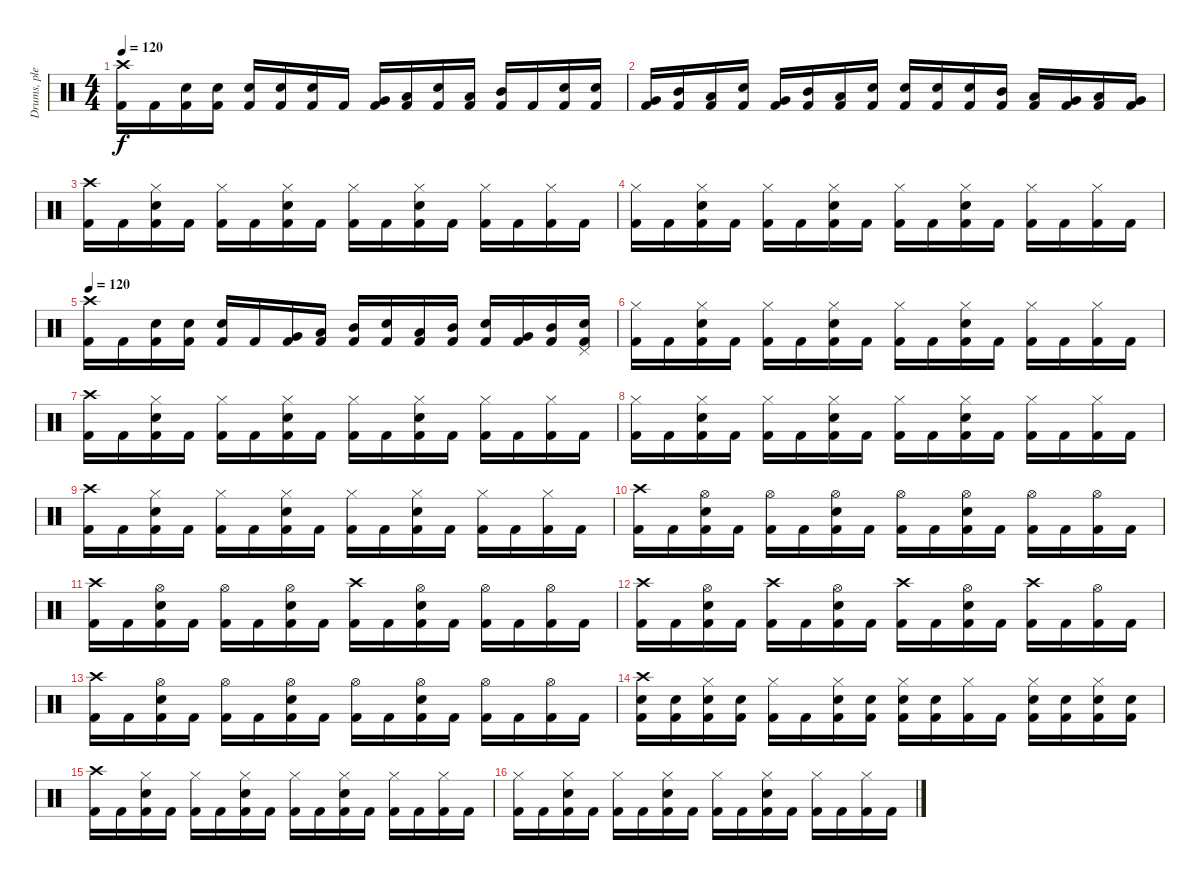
\track ("Drums, please" "Drums, ple") {instrument percussion}
\staff {score}
\articulation defaults
\ts (4 4)
\tempo 120
\clef neutral
\ks c
("Kick (hit) 2" "Crash high (hit)").16{dy f} "Kick (hit) 2".16 ("Kick (hit) 2" "Electric Snare (hit)").16 ("Kick (hit) 2" "Electric Snare (hit)").16 ("Kick (hit) 2" "Electric Snare (hit)").16 ("Kick (hit) 2" "Electric Snare (hit)").16 ("Kick (hit) 2" "Electric Snare (hit)").16 "Kick (hit) 2".16 ("Kick (hit) 2" "Very Low Tom (hit)").16 ("Kick (hit) 2" "Low Tom (hit)").16 ("Kick (hit) 2" "Electric Snare (hit)").16 ("Kick (hit) 2" "Low Tom (hit)").16 ("Kick (hit) 2" "Mid Tom (hit)").16 "Kick (hit) 2".16 ("Kick (hit) 2" "Electric Snare (hit)").16 ("Kick (hit) 2" "Electric Snare (hit)").16 |
("Kick (hit) 2" "Very Low Tom (hit)").16 ("Kick (hit) 2" "Mid Tom (hit)").16 ("Kick (hit) 2" "Low Tom (hit)").16 ("Kick (hit) 2" "Electric Snare (hit)").16 ("Kick (hit) 2" "Very Low Tom (hit)").16 ("Kick (hit) 2" "Mid Tom (hit)").16 ("Kick (hit) 2" "Low Tom (hit)").16 ("Kick (hit) 2" "Electric Snare (hit)").16 ("Kick (hit) 2" "Electric Snare (hit)").16 ("Kick (hit) 2" "Electric Snare (hit)").16 ("Kick (hit) 2" "Electric Snare (hit)").16 ("Kick (hit) 2" "Mid Tom (hit)").16 ("Kick (hit) 2" "Low Tom (hit)").16 ("Kick (hit) 2" "Very Low Tom (hit)").16 ("Kick (hit) 2" "Low Floor Tom (hit)").16 ("Kick (hit) 2" "Very Low Tom (hit)").16 |
("Kick (hit) 2" "Crash high (hit)").16 "Kick (hit) 2".16 ("Kick (hit) 2" "Electric Snare (hit)" "Hi-Hat (closed)").16 "Kick (hit) 2".16 ("Kick (hit) 2" "Hi-Hat (closed)").16 "Kick (hit) 2".16 ("Kick (hit) 2" "Electric Snare (hit)" "Hi-Hat (closed)").16 "Kick (hit) 2".16 ("Kick (hit) 2" "Hi-Hat (closed)").16 "Kick (hit) 2".16 ("Kick (hit) 2" "Electric Snare (hit)" "Hi-Hat (closed)").16 "Kick (hit) 2".16 ("Kick (hit) 2" "Hi-Hat (closed)").16 "Kick (hit) 2".16 ("Kick (hit) 2" "Hi-Hat (closed)").16 "Kick (hit) 2".16 |
("Kick (hit) 2" "Hi-Hat (closed)").16 "Kick (hit) 2".16 ("Kick (hit) 2" "Electric Snare (hit)" "Hi-Hat (closed)").16 "Kick (hit) 2".16 ("Kick (hit) 2" "Hi-Hat (closed)").16 "Kick (hit) 2".16 ("Kick (hit) 2" "Electric Snare (hit)" "Hi-Hat (closed)").16 "Kick (hit) 2".16 ("Kick (hit) 2" "Hi-Hat (closed)").16 "Kick (hit) 2".16 ("Kick (hit) 2" "Electric Snare (hit)" "Hi-Hat (closed)").16 "Kick (hit) 2".16 ("Kick (hit) 2" "Hi-Hat (closed)").16 "Kick (hit) 2".16 ("Kick (hit) 2" "Hi-Hat (closed)").16 "Kick (hit) 2".16 |
\tempo 120
("Kick (hit) 2" "Crash high (hit)").16 "Kick (hit) 2".16 ("Kick (hit) 2" "Electric Snare (hit)").16 ("Kick (hit) 2" "Electric Snare (hit)").16 ("Kick (hit) 2" "Electric Snare (hit)").16 "Kick (hit) 2".16 ("Kick (hit) 2" "Very Low Tom (hit)").16 ("Kick (hit) 2" "Low Tom (hit)").16 ("Kick (hit) 2" "Mid Tom (hit)").16 ("Kick (hit) 2" "Electric Snare (hit)").16 ("Kick (hit) 2" "Low Tom (hit)").16 ("Kick (hit) 2" "Mid Tom (hit)").16 ("Kick (hit) 2" "Electric Snare (hit)").16 ("Kick (hit) 2" "Very Low Tom (hit)").16 ("Kick (hit) 2" "Mid Tom (hit)").16 ("Kick (hit) 2" "Electric Snare (hit)" "Pedal Hi-Hat (hit)").16 |
("Kick (hit) 2" "Hi-Hat (closed)").16 "Kick (hit) 2".16 ("Kick (hit) 2" "Electric Snare (hit)" "Hi-Hat (closed)").16 "Kick (hit) 2".16 ("Kick (hit) 2" "Hi-Hat (closed)").16 "Kick (hit) 2".16 ("Kick (hit) 2" "Electric Snare (hit)" "Hi-Hat (closed)").16 "Kick (hit) 2".16 ("Kick (hit) 2" "Hi-Hat (closed)").16 "Kick (hit) 2".16 ("Kick (hit) 2" "Electric Snare (hit)" "Hi-Hat (closed)").16 "Kick (hit) 2".16 ("Kick (hit) 2" "Hi-Hat (closed)").16 "Kick (hit) 2".16 ("Kick (hit) 2" "Hi-Hat (closed)").16 "Kick (hit) 2".16 |
("Kick (hit) 2" "Crash high (hit)").16 "Kick (hit) 2".16 ("Kick (hit) 2" "Electric Snare (hit)" "Hi-Hat (closed)").16 "Kick (hit) 2".16 ("Kick (hit) 2" "Hi-Hat (closed)").16 "Kick (hit) 2".16 ("Kick (hit) 2" "Electric Snare (hit)" "Hi-Hat (closed)").16 "Kick (hit) 2".16 ("Kick (hit) 2" "Hi-Hat (closed)").16 "Kick (hit) 2".16 ("Kick (hit) 2" "Electric Snare (hit)" "Hi-Hat (closed)").16 "Kick (hit) 2".16 ("Kick (hit) 2" "Hi-Hat (closed)").16 "Kick (hit) 2".16 ("Kick (hit) 2" "Hi-Hat (closed)").16 "Kick (hit) 2".16 |
("Kick (hit) 2" "Hi-Hat (closed)").16 "Kick (hit) 2".16 ("Kick (hit) 2" "Electric Snare (hit)" "Hi-Hat (closed)").16 "Kick (hit) 2".16 ("Kick (hit) 2" "Hi-Hat (closed)").16 "Kick (hit) 2".16 ("Kick (hit) 2" "Electric Snare (hit)" "Hi-Hat (closed)").16 "Kick (hit) 2".16 ("Kick (hit) 2" "Hi-Hat (closed)").16 "Kick (hit) 2".16 ("Kick (hit) 2" "Electric Snare (hit)" "Hi-Hat (closed)").16 "Kick (hit) 2".16 ("Kick (hit) 2" "Hi-Hat (closed)").16 "Kick (hit) 2".16 ("Kick (hit) 2" "Hi-Hat (closed)").16 "Kick (hit) 2".16 |
("Kick (hit) 2" "Crash high (hit)").16 "Kick (hit) 2".16 ("Kick (hit) 2" "Electric Snare (hit)" "Hi-Hat (closed)").16 "Kick (hit) 2".16 ("Kick (hit) 2" "Hi-Hat (closed)").16 "Kick (hit) 2".16 ("Kick (hit) 2" "Electric Snare (hit)" "Hi-Hat (closed)").16 "Kick (hit) 2".16 ("Kick (hit) 2" "Hi-Hat (closed)").16 "Kick (hit) 2".16 ("Kick (hit) 2" "Electric Snare (hit)" "Hi-Hat (closed)").16 "Kick (hit) 2".16 ("Kick (hit) 2" "Hi-Hat (closed)").16 "Kick (hit) 2".16 ("Kick (hit) 2" "Hi-Hat (closed)").16 "Kick (hit) 2".16 |
("Kick (hit) 2" "Crash high (hit)").16 "Kick (hit) 2".16 ("Kick (hit) 2" "Electric Snare (hit)" "Hi-Hat (open)").16 "Kick (hit) 2".16 ("Kick (hit) 2" "Hi-Hat (open)").16 "Kick (hit) 2".16 ("Kick (hit) 2" "Electric Snare (hit)" "Hi-Hat (open)").16 "Kick (hit) 2".16 ("Kick (hit) 2" "Hi-Hat (open)").16 "Kick (hit) 2".16 ("Kick (hit) 2" "Electric Snare (hit)" "Hi-Hat (open)").16 "Kick (hit) 2".16 ("Kick (hit) 2" "Hi-Hat (open)").16 "Kick (hit) 2".16 ("Kick (hit) 2" "Hi-Hat (open)").16 "Kick (hit) 2".16 |
("Kick (hit) 2" "Crash high (hit)").16 "Kick (hit) 2".16 ("Kick (hit) 2" "Electric Snare (hit)" "Hi-Hat (open)").16 "Kick (hit) 2".16 ("Kick (hit) 2" "Hi-Hat (open)").16 "Kick (hit) 2".16 ("Kick (hit) 2" "Electric Snare (hit)" "Hi-Hat (open)").16 "Kick (hit) 2".16 ("Kick (hit) 2" "Crash high (hit)").16 "Kick (hit) 2".16 ("Kick (hit) 2" "Electric Snare (hit)" "Hi-Hat (open)").16 "Kick (hit) 2".16 ("Kick (hit) 2" "Hi-Hat (open)").16 "Kick (hit) 2".16 ("Kick (hit) 2" "Hi-Hat (open)").16 "Kick (hit) 2".16 |
("Kick (hit) 2" "Crash high (hit)").16 "Kick (hit) 2".16 ("Kick (hit) 2" "Electric Snare (hit)" "Hi-Hat (open)").16 "Kick (hit) 2".16 ("Kick (hit) 2" "Crash high (hit)").16 "Kick (hit) 2".16 ("Kick (hit) 2" "Electric Snare (hit)" "Hi-Hat (open)").16 "Kick (hit) 2".16 ("Kick (hit) 2" "Crash high (hit)").16 "Kick (hit) 2".16 ("Kick (hit) 2" "Electric Snare (hit)" "Hi-Hat (open)").16 "Kick (hit) 2".16 ("Kick (hit) 2" "Crash high (hit)").16 "Kick (hit) 2".16 ("Kick (hit) 2" "Hi-Hat (open)").16 "Kick (hit) 2".16 |
("Kick (hit) 2" "Crash high (hit)").16 "Kick (hit) 2".16 ("Kick (hit) 2" "Electric Snare (hit)" "Hi-Hat (open)").16 "Kick (hit) 2".16 ("Kick (hit) 2" "Hi-Hat (open)").16 "Kick (hit) 2".16 ("Kick (hit) 2" "Electric Snare (hit)" "Hi-Hat (open)").16 "Kick (hit) 2".16 ("Kick (hit) 2" "Hi-Hat (open)").16 "Kick (hit) 2".16 ("Kick (hit) 2" "Electric Snare (hit)" "Hi-Hat (open)").16 "Kick (hit) 2".16 ("Kick (hit) 2" "Hi-Hat (open)").16 "Kick (hit) 2".16 ("Kick (hit) 2" "Hi-Hat (open)").16 "Kick (hit) 2".16 |
("Kick (hit) 2" "Electric Snare (hit)" "Crash high (hit)").16 ("Kick (hit) 2" "Electric Snare (hit)").16 ("Kick (hit) 2" "Electric Snare (hit)" "Hi-Hat (closed)").16 ("Kick (hit) 2" "Electric Snare (hit)").16 ("Kick (hit) 2" "Hi-Hat (closed)").16 "Kick (hit) 2".16 ("Kick (hit) 2" "Electric Snare (hit)" "Hi-Hat (closed)").16 ("Kick (hit) 2" "Electric Snare (hit)").16 ("Kick (hit) 2" "Electric Snare (hit)" "Hi-Hat (closed)").16 ("Kick (hit) 2" "Electric Snare (hit)").16 ("Kick (hit) 2" "Hi-Hat (closed)").16 "Kick (hit) 2".16 ("Kick (hit) 2" "Electric Snare (hit)" "Hi-Hat (closed)").16 ("Kick (hit) 2" "Electric Snare (hit)").16 ("Kick (hit) 2" "Electric Snare (hit)" "Hi-Hat (closed)").16 ("Kick (hit) 2" "Electric Snare (hit)").16 |
("Kick (hit) 2" "Crash high (hit)").16 "Kick (hit) 2".16 ("Kick (hit) 2" "Electric Snare (hit)" "Hi-Hat (closed)").16 "Kick (hit) 2".16 ("Kick (hit) 2" "Hi-Hat (closed)").16 "Kick (hit) 2".16 ("Kick (hit) 2" "Electric Snare (hit)" "Hi-Hat (closed)").16 "Kick (hit) 2".16 ("Kick (hit) 2" "Hi-Hat (closed)").16 "Kick (hit) 2".16 ("Kick (hit) 2" "Electric Snare (hit)" "Hi-Hat (closed)").16 "Kick (hit) 2".16 ("Kick (hit) 2" "Hi-Hat (closed)").16 "Kick (hit) 2".16 ("Kick (hit) 2" "Hi-Hat (closed)").16 "Kick (hit) 2".16 |
("Kick (hit) 2" "Hi-Hat (closed)").16 "Kick (hit) 2".16 ("Kick (hit) 2" "Electric Snare (hit)" "Hi-Hat (closed)").16 "Kick (hit) 2".16 ("Kick (hit) 2" "Hi-Hat (closed)").16 "Kick (hit) 2".16 ("Kick (hit) 2" "Electric Snare (hit)" "Hi-Hat (closed)").16 "Kick (hit) 2".16 ("Kick (hit) 2" "Hi-Hat (closed)").16 "Kick (hit) 2".16 ("Kick (hit) 2" "Electric Snare (hit)" "Hi-Hat (closed)").16 "Kick (hit) 2".16 ("Kick (hit) 2" "Hi-Hat (closed)").16 "Kick (hit) 2".16 ("Kick (hit) 2" "Hi-Hat (closed)").16 "Kick (hit) 2".16
